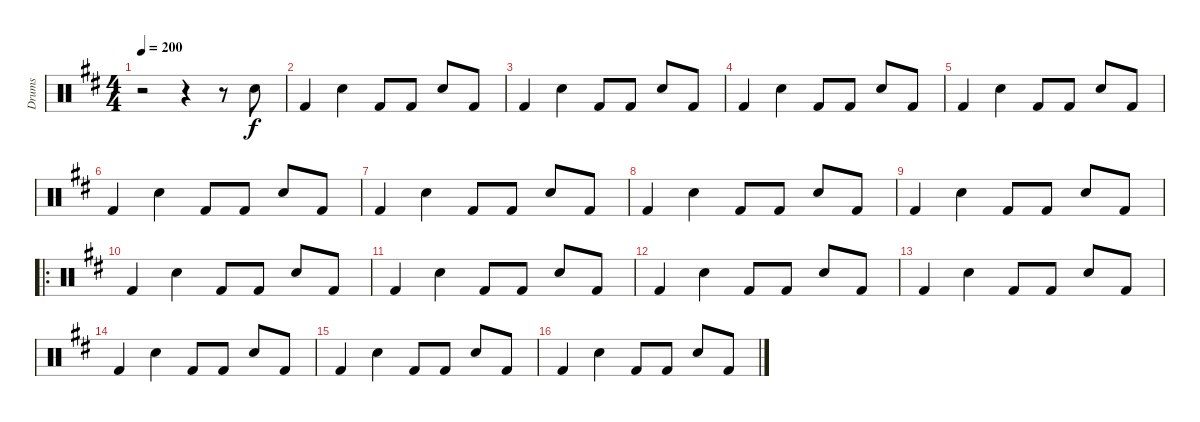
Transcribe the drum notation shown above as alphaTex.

\track ("Drums" "Drums") {instrument percussion}
\staff {score}
\articulation defaults
\ts (4 4)
\tempo 200
\clef neutral
\ks d
r.2{dy f} r.4 r.8 "Electric Snare (hit)".8 |
"Kick (hit) 2".4 "Electric Snare (hit)".4 "Kick (hit) 2".8 "Kick (hit) 2".8 "Electric Snare (hit)".8 "Kick (hit) 2".8 |
"Kick (hit) 2".4 "Electric Snare (hit)".4 "Kick (hit) 2".8 "Kick (hit) 2".8 "Electric Snare (hit)".8 "Kick (hit) 2".8 |
"Kick (hit) 2".4 "Electric Snare (hit)".4 "Kick (hit) 2".8 "Kick (hit) 2".8 "Electric Snare (hit)".8 "Kick (hit) 2".8 |
"Kick (hit) 2".4 "Electric Snare (hit)".4 "Kick (hit) 2".8 "Kick (hit) 2".8 "Electric Snare (hit)".8 "Kick (hit) 2".8 |
"Kick (hit) 2".4 "Electric Snare (hit)".4 "Kick (hit) 2".8 "Kick (hit) 2".8 "Electric Snare (hit)".8 "Kick (hit) 2".8 |
"Kick (hit) 2".4 "Electric Snare (hit)".4 "Kick (hit) 2".8 "Kick (hit) 2".8 "Electric Snare (hit)".8 "Kick (hit) 2".8 |
"Kick (hit) 2".4 "Electric Snare (hit)".4 "Kick (hit) 2".8 "Kick (hit) 2".8 "Electric Snare (hit)".8 "Kick (hit) 2".8 |
"Kick (hit) 2".4 "Electric Snare (hit)".4 "Kick (hit) 2".8 "Kick (hit) 2".8 "Electric Snare (hit)".8 "Kick (hit) 2".8 |
\ro "Kick (hit) 2".4 "Electric Snare (hit)".4 "Kick (hit) 2".8 "Kick (hit) 2".8 "Electric Snare (hit)".8 "Kick (hit) 2".8
|
"Kick (hit) 2".4 "Electric Snare (hit)".4 "Kick (hit) 2".8 "Kick (hit) 2".8 "Electric Snare (hit)".8 "Kick (hit) 2".8 |
"Kick (hit) 2".4 "Electric Snare (hit)".4 "Kick (hit) 2".8 "Kick (hit) 2".8 "Electric Snare (hit)".8 "Kick (hit) 2".8 |
"Kick (hit) 2".4 "Electric Snare (hit)".4 "Kick (hit) 2".8 "Kick (hit) 2".8 "Electric Snare (hit)".8 "Kick (hit) 2".8 |
"Kick (hit) 2".4 "Electric Snare (hit)".4 "Kick (hit) 2".8 "Kick (hit) 2".8 "Electric Snare (hit)".8 "Kick (hit) 2".8 |
"Kick (hit) 2".4 "Electric Snare (hit)".4 "Kick (hit) 2".8 "Kick (hit) 2".8 "Electric Snare (hit)".8 "Kick (hit) 2".8 |
"Kick (hit) 2".4 "Electric Snare (hit)".4 "Kick (hit) 2".8 "Kick (hit) 2".8 "Electric Snare (hit)".8 "Kick (hit) 2".8
